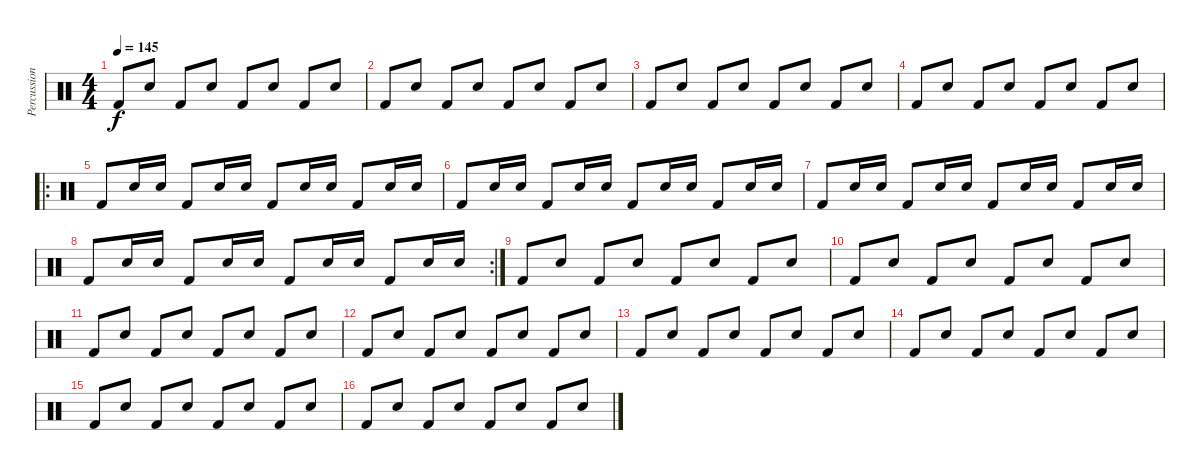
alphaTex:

\track ("Percussions" "Percussion") {instrument percussion}
\staff {score}
\articulation defaults
\ts (4 4)
\tempo 145
\clef neutral
\ks c "Kick (hit) 2".8{dy f} "Electric Snare (hit)".8 "Kick (hit) 2".8 "Electric Snare (hit)".8 "Kick (hit) 2".8 "Electric Snare (hit)".8 "Kick (hit) 2".8 "Electric Snare (hit)".8
|
"Kick (hit) 2".8 "Electric Snare (hit)".8 "Kick (hit) 2".8 "Electric Snare (hit)".8 "Kick (hit) 2".8 "Electric Snare (hit)".8 "Kick (hit) 2".8 "Electric Snare (hit)".8 |
"Kick (hit) 2".8 "Electric Snare (hit)".8 "Kick (hit) 2".8 "Electric Snare (hit)".8 "Kick (hit) 2".8 "Electric Snare (hit)".8 "Kick (hit) 2".8 "Electric Snare (hit)".8 |
"Kick (hit) 2".8 "Electric Snare (hit)".8 "Kick (hit) 2".8 "Electric Snare (hit)".8 "Kick (hit) 2".8 "Electric Snare (hit)".8 "Kick (hit) 2".8 "Electric Snare (hit)".8 |
\ro "Kick (hit) 2".8 "Electric Snare (hit)".16 "Electric Snare (hit)".16 "Kick (hit) 2".8 "Electric Snare (hit)".16 "Electric Snare (hit)".16 "Kick (hit) 2".8 "Electric Snare (hit)".16 "Electric Snare (hit)".16 "Kick (hit) 2".8 "Electric Snare (hit)".16 "Electric Snare (hit)".16
|
"Kick (hit) 2".8 "Electric Snare (hit)".16 "Electric Snare (hit)".16 "Kick (hit) 2".8 "Electric Snare (hit)".16 "Electric Snare (hit)".16 "Kick (hit) 2".8 "Electric Snare (hit)".16 "Electric Snare (hit)".16 "Kick (hit) 2".8 "Electric Snare (hit)".16 "Electric Snare (hit)".16 |
"Kick (hit) 2".8 "Electric Snare (hit)".16 "Electric Snare (hit)".16 "Kick (hit) 2".8 "Electric Snare (hit)".16 "Electric Snare (hit)".16 "Kick (hit) 2".8 "Electric Snare (hit)".16 "Electric Snare (hit)".16 "Kick (hit) 2".8 "Electric Snare (hit)".16 "Electric Snare (hit)".16 |
\rc 2 "Kick (hit) 2".8 "Electric Snare (hit)".16 "Electric Snare (hit)".16 "Kick (hit) 2".8 "Electric Snare (hit)".16 "Electric Snare (hit)".16 "Kick (hit) 2".8 "Electric Snare (hit)".16 "Electric Snare (hit)".16 "Kick (hit) 2".8 "Electric Snare (hit)".16 "Electric Snare (hit)".16
|
"Kick (hit) 2".8 "Electric Snare (hit)".8 "Kick (hit) 2".8 "Electric Snare (hit)".8 "Kick (hit) 2".8 "Electric Snare (hit)".8 "Kick (hit) 2".8 "Electric Snare (hit)".8 |
"Kick (hit) 2".8 "Electric Snare (hit)".8 "Kick (hit) 2".8 "Electric Snare (hit)".8 "Kick (hit) 2".8 "Electric Snare (hit)".8 "Kick (hit) 2".8 "Electric Snare (hit)".8 |
"Kick (hit) 2".8 "Electric Snare (hit)".8 "Kick (hit) 2".8 "Electric Snare (hit)".8 "Kick (hit) 2".8 "Electric Snare (hit)".8 "Kick (hit) 2".8 "Electric Snare (hit)".8 |
"Kick (hit) 2".8 "Electric Snare (hit)".8 "Kick (hit) 2".8 "Electric Snare (hit)".8 "Kick (hit) 2".8 "Electric Snare (hit)".8 "Kick (hit) 2".8 "Electric Snare (hit)".8 |
"Kick (hit) 2".8 "Electric Snare (hit)".8 "Kick (hit) 2".8 "Electric Snare (hit)".8 "Kick (hit) 2".8 "Electric Snare (hit)".8 "Kick (hit) 2".8 "Electric Snare (hit)".8 |
"Kick (hit) 2".8 "Electric Snare (hit)".8 "Kick (hit) 2".8 "Electric Snare (hit)".8 "Kick (hit) 2".8 "Electric Snare (hit)".8 "Kick (hit) 2".8 "Electric Snare (hit)".8 |
"Kick (hit) 2".8 "Electric Snare (hit)".8 "Kick (hit) 2".8 "Electric Snare (hit)".8 "Kick (hit) 2".8 "Electric Snare (hit)".8 "Kick (hit) 2".8 "Electric Snare (hit)".8 |
"Kick (hit) 2".8 "Electric Snare (hit)".8 "Kick (hit) 2".8 "Electric Snare (hit)".8 "Kick (hit) 2".8 "Electric Snare (hit)".8 "Kick (hit) 2".8 "Electric Snare (hit)".8
